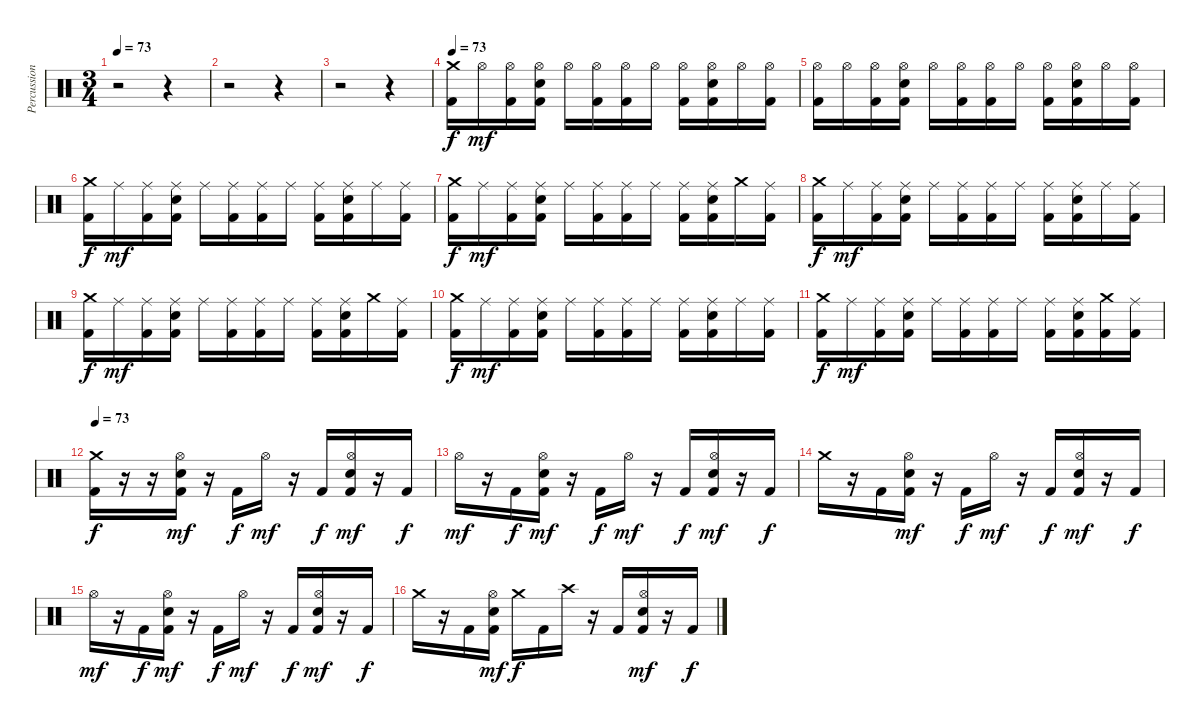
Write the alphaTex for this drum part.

\track ("Percussion" "Percussion") {instrument percussion}
\staff {score}
\articulation defaults
\ts (3 4)
\tempo 73
\clef neutral
\ks c
r.2{dy f} r.4 |
r.2 r.4 |
r.2 r.4 |
\tempo 73
("Crash medium (hit)" "Kick (hit) 2").16 "Hi-Hat (open)".16{dy mf} ("Hi-Hat (open)" "Kick (hit) 2").16 ("Hi-Hat (open)" "Electric Snare (hit)" "Kick (hit) 2").16 "Hi-Hat (open)".16 ("Hi-Hat (open)" "Kick (hit) 2").16 ("Hi-Hat (open)" "Kick (hit) 2").16 "Hi-Hat (open)".16 ("Hi-Hat (open)" "Kick (hit) 2").16 ("Hi-Hat (open)" "Electric Snare (hit)" "Kick (hit) 2").16 "Hi-Hat (open)".16 ("Hi-Hat (open)" "Kick (hit) 2").16 |
("Hi-Hat (open)" "Kick (hit) 2").16 "Hi-Hat (open)".16 ("Hi-Hat (open)" "Kick (hit) 2").16 ("Hi-Hat (open)" "Electric Snare (hit)" "Kick (hit) 2").16 "Hi-Hat (open)".16 ("Hi-Hat (open)" "Kick (hit) 2").16 ("Hi-Hat (open)" "Kick (hit) 2").16 "Hi-Hat (open)".16 ("Hi-Hat (open)" "Kick (hit) 2").16 ("Hi-Hat (open)" "Electric Snare (hit)" "Kick (hit) 2").16 "Hi-Hat (open)".16 ("Hi-Hat (open)" "Kick (hit) 2").16 |
("Crash medium (hit)" "Kick (hit) 2").16{dy f} "Ride (middle)".16{dy mf} ("Ride (middle)" "Kick (hit) 2").16 ("Ride (middle)" "Electric Snare (hit)" "Kick (hit) 2").16 "Ride (middle)".16 ("Ride (middle)" "Kick (hit) 2").16 ("Ride (middle)" "Kick (hit) 2").16 "Ride (middle)".16 ("Ride (middle)" "Kick (hit) 2").16 ("Ride (middle)" "Electric Snare (hit)" "Kick (hit) 2").16 "Ride (middle)".16 ("Ride (middle)" "Kick (hit) 2").16 |
("Crash medium (hit)" "Kick (hit) 2").16{dy f} "Ride (middle)".16{dy mf} ("Ride (middle)" "Kick (hit) 2").16 ("Ride (middle)" "Electric Snare (hit)" "Kick (hit) 2").16 "Ride (middle)".16 ("Ride (middle)" "Kick (hit) 2").16 ("Ride (middle)" "Kick (hit) 2").16 "Ride (middle)".16 ("Ride (middle)" "Kick (hit) 2").16 ("Ride (middle)" "Electric Snare (hit)" "Kick (hit) 2").16 "Crash medium (hit)".16 ("Ride (middle)" "Kick (hit) 2").16 |
("Crash medium (hit)" "Kick (hit) 2").16{dy f} "Ride (middle)".16{dy mf} ("Ride (middle)" "Kick (hit) 2").16 ("Ride (middle)" "Electric Snare (hit)" "Kick (hit) 2").16 "Ride (middle)".16 ("Ride (middle)" "Kick (hit) 2").16 ("Ride (middle)" "Kick (hit) 2").16 "Ride (middle)".16 ("Ride (middle)" "Kick (hit) 2").16 ("Ride (middle)" "Electric Snare (hit)" "Kick (hit) 2").16 "Ride (middle)".16 ("Ride (middle)" "Kick (hit) 2").16 |
("Crash medium (hit)" "Kick (hit) 2").16{dy f} "Ride (middle)".16{dy mf} ("Ride (middle)" "Kick (hit) 2").16 ("Ride (middle)" "Electric Snare (hit)" "Kick (hit) 2").16 "Ride (middle)".16 ("Ride (middle)" "Kick (hit) 2").16 ("Ride (middle)" "Kick (hit) 2").16 "Ride (middle)".16 ("Ride (middle)" "Kick (hit) 2").16 ("Ride (middle)" "Electric Snare (hit)" "Kick (hit) 2").16 "Crash medium (hit)".16 ("Ride (middle)" "Kick (hit) 2").16 |
("Crash medium (hit)" "Kick (hit) 2").16{dy f} "Ride (middle)".16{dy mf} ("Ride (middle)" "Kick (hit) 2").16 ("Ride (middle)" "Electric Snare (hit)" "Kick (hit) 2").16 "Ride (middle)".16 ("Ride (middle)" "Kick (hit) 2").16 ("Ride (middle)" "Kick (hit) 2").16 "Ride (middle)".16 ("Ride (middle)" "Kick (hit) 2").16 ("Ride (middle)" "Electric Snare (hit)" "Kick (hit) 2").16 "Ride (middle)".16 ("Ride (middle)" "Kick (hit) 2").16 |
("Crash medium (hit)" "Kick (hit) 2").16{dy f} "Ride (middle)".16{dy mf} ("Ride (middle)" "Kick (hit) 2").16 ("Ride (middle)" "Electric Snare (hit)" "Kick (hit) 2").16 "Ride (middle)".16 ("Ride (middle)" "Kick (hit) 2").16 ("Ride (middle)" "Kick (hit) 2").16 "Ride (middle)".16 ("Ride (middle)" "Kick (hit) 2").16 ("Ride (middle)" "Electric Snare (hit)" "Kick (hit) 2").16 ("Crash medium (hit)" "Kick (hit) 2").16 ("Ride (middle)" "Kick (hit) 2").16 |
\tempo 73
("Crash medium (hit)" "Kick (hit) 2").16{dy f} r.16 r.16 ("Hi-Hat (open)" "Electric Snare (hit)" "Kick (hit) 2").16{dy mf} r.16 "Kick (hit) 2".16{dy f} "Hi-Hat (open)".16{dy mf} r.16 "Kick (hit) 2".16{dy f} ("Hi-Hat (open)" "Electric Snare (hit)" "Kick (hit) 2").16{dy mf} r.16 "Kick (hit) 2".16{dy f} |
"Hi-Hat (open)".16{dy mf} r.16 "Kick (hit) 2".16{dy f} ("Hi-Hat (open)" "Electric Snare (hit)" "Kick (hit) 2").16{dy mf} r.16 "Kick (hit) 2".16{dy f} "Hi-Hat (open)".16{dy mf} r.16 "Kick (hit) 2".16{dy f} ("Hi-Hat (open)" "Electric Snare (hit)" "Kick (hit) 2").16{dy mf} r.16 "Kick (hit) 2".16{dy f} |
"Crash medium (hit)".16 r.16 "Kick (hit) 2".16 ("Hi-Hat (open)" "Electric Snare (hit)" "Kick (hit) 2").16{dy mf} r.16 "Kick (hit) 2".16{dy f} "Hi-Hat (open)".16{dy mf} r.16 "Kick (hit) 2".16{dy f} ("Hi-Hat (open)" "Electric Snare (hit)" "Kick (hit) 2").16{dy mf} r.16 "Kick (hit) 2".16{dy f} |
"Hi-Hat (open)".16{dy mf} r.16 "Kick (hit) 2".16{dy f} ("Hi-Hat (open)" "Electric Snare (hit)" "Kick (hit) 2").16{dy mf} r.16 "Kick (hit) 2".16{dy f} "Hi-Hat (open)".16{dy mf} r.16 "Kick (hit) 2".16{dy f} ("Hi-Hat (open)" "Electric Snare (hit)" "Kick (hit) 2").16{dy mf} r.16 "Kick (hit) 2".16{dy f} |
"Crash medium (hit)".16 r.16 "Kick (hit) 2".16 ("Hi-Hat (open)" "Electric Snare (hit)" "Kick (hit) 2").16{dy mf} "Crash medium (hit)".16{dy f} "Kick (hit) 2".16 "Crash high (hit)".16 r.16 "Kick (hit) 2".16 ("Hi-Hat (open)" "Electric Snare (hit)" "Kick (hit) 2").16{dy mf} r.16 "Kick (hit) 2".16{dy f}
